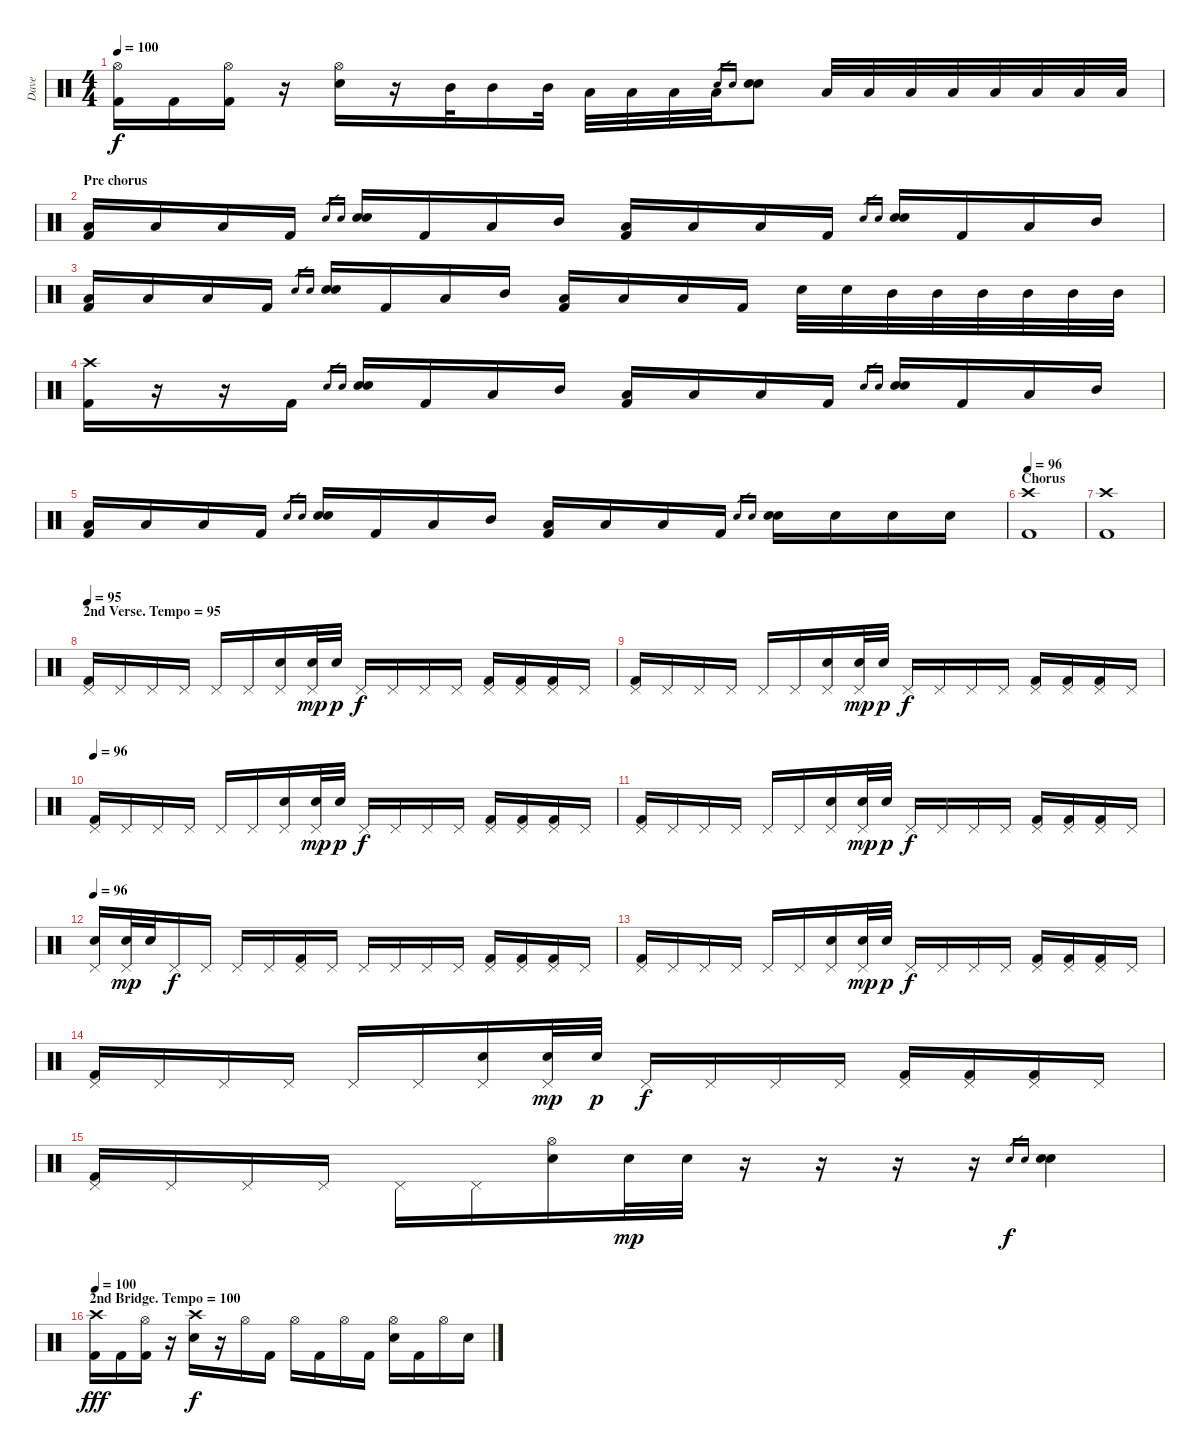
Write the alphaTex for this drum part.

\track ("Dave" "Dave") {instrument percussion}
\staff {score}
\articulation defaults
\ts (4 4)
\tempo 100
\clef neutral
\ks c
("Hi-Hat (open)" "Kick (hit) 2").16{dy f} "Kick (hit) 2".16 ("Hi-Hat (open)" "Kick (hit) 2").16 r.16 ("Hi-Hat (open)" "Electric Snare (hit)").16 r.16 "Mid Tom (hit)".32 "Mid Tom (hit)".16 "Mid Tom (hit)".32 "Low Tom (hit)".32 "Low Tom (hit)".32 "Low Tom (hit)".32 "Low Tom (hit)".32 "Electric Snare (hit)".16{gr} "Electric Snare (hit)".16{gr} ("Electric Snare (hit)" "Electric Snare (hit)").8 "Low Tom (hit)".32 "Low Tom (hit)".32 "Low Tom (hit)".32 "Low Tom (hit)".32 "Low Floor Tom (hit)".32 "Low Floor Tom (hit)".32 "Low Floor Tom (hit)".32 "Low Floor Tom (hit)".32 |
\section ("" "Pre chorus")
("Low Floor Tom (hit)" "Kick (hit) 2").16 "Low Floor Tom (hit)".16 "Low Floor Tom (hit)".16 "Kick (hit) 2".16 "Electric Snare (hit)".16{gr} "Electric Snare (hit)".16{gr} ("Electric Snare (hit)" "Electric Snare (hit)").16 "Kick (hit) 2".16 "Low Floor Tom (hit)".16 "Mid Tom (hit)".16 ("Low Floor Tom (hit)" "Kick (hit) 2").16 "Low Floor Tom (hit)".16 "Low Floor Tom (hit)".16 "Kick (hit) 2".16 "Electric Snare (hit)".16{gr} "Electric Snare (hit)".16{gr} ("Electric Snare (hit)" "Electric Snare (hit)").16 "Kick (hit) 2".16 "Low Floor Tom (hit)".16 "Mid Tom (hit)".16 |
("Low Floor Tom (hit)" "Kick (hit) 2").16 "Low Floor Tom (hit)".16 "Low Floor Tom (hit)".16 "Kick (hit) 2".16 "Electric Snare (hit)".16{gr} "Electric Snare (hit)".16{gr} ("Electric Snare (hit)" "Electric Snare (hit)").16 "Kick (hit) 2".16 "Low Floor Tom (hit)".16 "Mid Tom (hit)".16 ("Low Floor Tom (hit)" "Kick (hit) 2").16 "Low Floor Tom (hit)".16 "Low Floor Tom (hit)".16 "Kick (hit) 2".16 "Electric Snare (hit)".32 "Electric Snare (hit)".32 "Mid Tom (hit)".32 "Mid Tom (hit)".32 "Mid Tom (hit)".32 "Mid Tom (hit)".32 "Mid Tom (hit)".32 "Mid Tom (hit)".32 |
("Crash high (hit)" "Kick (hit) 2").16 r.16 r.16 "Kick (hit) 2".16 "Electric Snare (hit)".16{gr} "Electric Snare (hit)".16{gr} ("Electric Snare (hit)" "Electric Snare (hit)").16 "Kick (hit) 2".16 "Low Floor Tom (hit)".16 "Mid Tom (hit)".16 ("Low Floor Tom (hit)" "Kick (hit) 2").16 "Low Floor Tom (hit)".16 "Low Floor Tom (hit)".16 "Kick (hit) 2".16 "Electric Snare (hit)".16{gr} "Electric Snare (hit)".16{gr} ("Electric Snare (hit)" "Electric Snare (hit)").16 "Kick (hit) 2".16 "Low Floor Tom (hit)".16 "Mid Tom (hit)".16 |
("Low Floor Tom (hit)" "Kick (hit) 2").16 "Low Floor Tom (hit)".16 "Low Floor Tom (hit)".16 "Kick (hit) 2".16 "Electric Snare (hit)".16{gr} "Electric Snare (hit)".16{gr} ("Electric Snare (hit)" "Electric Snare (hit)").16 "Kick (hit) 2".16 "Low Floor Tom (hit)".16 "Mid Tom (hit)".16 ("Low Floor Tom (hit)" "Kick (hit) 2").16 "Low Floor Tom (hit)".16 "Low Floor Tom (hit)".16 "Kick (hit) 2".16 "Electric Snare (hit)".16{gr} "Electric Snare (hit)".16{gr} ("Electric Snare (hit)" "Electric Snare (hit)").16 "Electric Snare (hit)".16 "Electric Snare (hit)".16 "Electric Snare (hit)".16 |
\section ("" "Chorus")
\tempo 96
("Crash high (hit)" "Kick (hit) 2").1 |
("Crash high (hit)" "Kick (hit) 2").1 |
\section ("" "2nd Verse. Tempo = 95")
\tempo 96
\tempo 95
("Pedal Hi-Hat (hit)" "Kick (hit) 2").16 "Pedal Hi-Hat (hit)".16 "Pedal Hi-Hat (hit)".16 "Pedal Hi-Hat (hit)".16 "Pedal Hi-Hat (hit)".16 "Pedal Hi-Hat (hit)".16 ("Pedal Hi-Hat (hit)" "Electric Snare (hit)").16 ("Pedal Hi-Hat (hit)" "Electric Snare (hit)").32{dy mp} "Electric Snare (hit)".32{dy p} "Pedal Hi-Hat (hit)".16{dy f} "Pedal Hi-Hat (hit)".16 "Pedal Hi-Hat (hit)".16 "Pedal Hi-Hat (hit)".16 ("Pedal Hi-Hat (hit)" "Kick (hit) 2").16 ("Pedal Hi-Hat (hit)" "Kick (hit) 2").16 ("Pedal Hi-Hat (hit)" "Kick (hit) 2").16 "Pedal Hi-Hat (hit)".16 |
("Pedal Hi-Hat (hit)" "Kick (hit) 2").16 "Pedal Hi-Hat (hit)".16 "Pedal Hi-Hat (hit)".16 "Pedal Hi-Hat (hit)".16 "Pedal Hi-Hat (hit)".16 "Pedal Hi-Hat (hit)".16 ("Pedal Hi-Hat (hit)" "Electric Snare (hit)").16 ("Pedal Hi-Hat (hit)" "Electric Snare (hit)").32{dy mp} "Electric Snare (hit)".32{dy p} "Pedal Hi-Hat (hit)".16{dy f} "Pedal Hi-Hat (hit)".16 "Pedal Hi-Hat (hit)".16 "Pedal Hi-Hat (hit)".16 ("Pedal Hi-Hat (hit)" "Kick (hit) 2").16 ("Pedal Hi-Hat (hit)" "Kick (hit) 2").16 ("Pedal Hi-Hat (hit)" "Kick (hit) 2").16 "Pedal Hi-Hat (hit)".16 |
\tempo 96
("Pedal Hi-Hat (hit)" "Kick (hit) 2").16 "Pedal Hi-Hat (hit)".16 "Pedal Hi-Hat (hit)".16 "Pedal Hi-Hat (hit)".16 "Pedal Hi-Hat (hit)".16 "Pedal Hi-Hat (hit)".16 ("Pedal Hi-Hat (hit)" "Electric Snare (hit)").16 ("Pedal Hi-Hat (hit)" "Electric Snare (hit)").32{dy mp} "Electric Snare (hit)".32{dy p} "Pedal Hi-Hat (hit)".16{dy f} "Pedal Hi-Hat (hit)".16 "Pedal Hi-Hat (hit)".16 "Pedal Hi-Hat (hit)".16 ("Pedal Hi-Hat (hit)" "Kick (hit) 2").16 ("Pedal Hi-Hat (hit)" "Kick (hit) 2").16 ("Pedal Hi-Hat (hit)" "Kick (hit) 2").16 "Pedal Hi-Hat (hit)".16 |
("Pedal Hi-Hat (hit)" "Kick (hit) 2").16 "Pedal Hi-Hat (hit)".16 "Pedal Hi-Hat (hit)".16 "Pedal Hi-Hat (hit)".16 "Pedal Hi-Hat (hit)".16 "Pedal Hi-Hat (hit)".16 ("Pedal Hi-Hat (hit)" "Electric Snare (hit)").16 ("Pedal Hi-Hat (hit)" "Electric Snare (hit)").32{dy mp} "Electric Snare (hit)".32{dy p} "Pedal Hi-Hat (hit)".16{dy f} "Pedal Hi-Hat (hit)".16 "Pedal Hi-Hat (hit)".16 "Pedal Hi-Hat (hit)".16 ("Pedal Hi-Hat (hit)" "Kick (hit) 2").16 ("Pedal Hi-Hat (hit)" "Kick (hit) 2").16 ("Pedal Hi-Hat (hit)" "Kick (hit) 2").16 "Pedal Hi-Hat (hit)".16 |
\tempo 96
("Pedal Hi-Hat (hit)" "Electric Snare (hit)").16 ("Pedal Hi-Hat (hit)" "Electric Snare (hit)").32{dy mp} "Electric Snare (hit)".32 "Pedal Hi-Hat (hit)".16{dy f} "Pedal Hi-Hat (hit)".16 "Pedal Hi-Hat (hit)".16 "Pedal Hi-Hat (hit)".16 ("Pedal Hi-Hat (hit)" "Kick (hit) 2").16 "Pedal Hi-Hat (hit)".16 "Pedal Hi-Hat (hit)".16 "Pedal Hi-Hat (hit)".16 "Pedal Hi-Hat (hit)".16 "Pedal Hi-Hat (hit)".16 ("Pedal Hi-Hat (hit)" "Kick (hit) 2").16 ("Pedal Hi-Hat (hit)" "Kick (hit) 2").16 ("Pedal Hi-Hat (hit)" "Kick (hit) 2").16 "Pedal Hi-Hat (hit)".16 |
("Pedal Hi-Hat (hit)" "Kick (hit) 2").16 "Pedal Hi-Hat (hit)".16 "Pedal Hi-Hat (hit)".16 "Pedal Hi-Hat (hit)".16 "Pedal Hi-Hat (hit)".16 "Pedal Hi-Hat (hit)".16 ("Pedal Hi-Hat (hit)" "Electric Snare (hit)").16 ("Pedal Hi-Hat (hit)" "Electric Snare (hit)").32{dy mp} "Electric Snare (hit)".32{dy p} "Pedal Hi-Hat (hit)".16{dy f} "Pedal Hi-Hat (hit)".16 "Pedal Hi-Hat (hit)".16 "Pedal Hi-Hat (hit)".16 ("Pedal Hi-Hat (hit)" "Kick (hit) 2").16 ("Pedal Hi-Hat (hit)" "Kick (hit) 2").16 ("Pedal Hi-Hat (hit)" "Kick (hit) 2").16 "Pedal Hi-Hat (hit)".16 |
("Pedal Hi-Hat (hit)" "Kick (hit) 2").16 "Pedal Hi-Hat (hit)".16 "Pedal Hi-Hat (hit)".16 "Pedal Hi-Hat (hit)".16 "Pedal Hi-Hat (hit)".16 "Pedal Hi-Hat (hit)".16 ("Pedal Hi-Hat (hit)" "Electric Snare (hit)").16 ("Pedal Hi-Hat (hit)" "Electric Snare (hit)").32{dy mp} "Electric Snare (hit)".32{dy p} "Pedal Hi-Hat (hit)".16{dy f} "Pedal Hi-Hat (hit)".16 "Pedal Hi-Hat (hit)".16 "Pedal Hi-Hat (hit)".16 ("Pedal Hi-Hat (hit)" "Kick (hit) 2").16 ("Pedal Hi-Hat (hit)" "Kick (hit) 2").16 ("Pedal Hi-Hat (hit)" "Kick (hit) 2").16 "Pedal Hi-Hat (hit)".16 |
("Pedal Hi-Hat (hit)" "Kick (hit) 2").16 "Pedal Hi-Hat (hit)".16 "Pedal Hi-Hat (hit)".16 "Pedal Hi-Hat (hit)".16 "Pedal Hi-Hat (hit)".16 "Pedal Hi-Hat (hit)".16 ("Hi-Hat (open)" "Electric Snare (hit)").16 "Electric Snare (hit)".32{dy mp} "Electric Snare (hit)".32 r.16 r.16 r.16 r.16 "Electric Snare (hit)".16{gr dy f} "Electric Snare (hit)".16{gr} ("Electric Snare (hit)" "Electric Snare (hit)").4 |
\section ("" "2nd Bridge. Tempo = 100")
\tempo 100
("Crash high (hit)" "Kick (hit) 2").16{dy fff} "Kick (hit) 2".16 ("Hi-Hat (open)" "Kick (hit) 2").16 r.16 ("Crash high (hit)" "Electric Snare (hit)").16{dy f} r.16 "Hi-Hat (open)".16 "Kick (hit) 2".16 "Hi-Hat (open)".16 "Kick (hit) 2".16 "Hi-Hat (open)".16 "Kick (hit) 2".16 ("Hi-Hat (open)" "Electric Snare (hit)").16 "Kick (hit) 2".16 "Hi-Hat (open)".16 "Electric Snare (hit)".16
